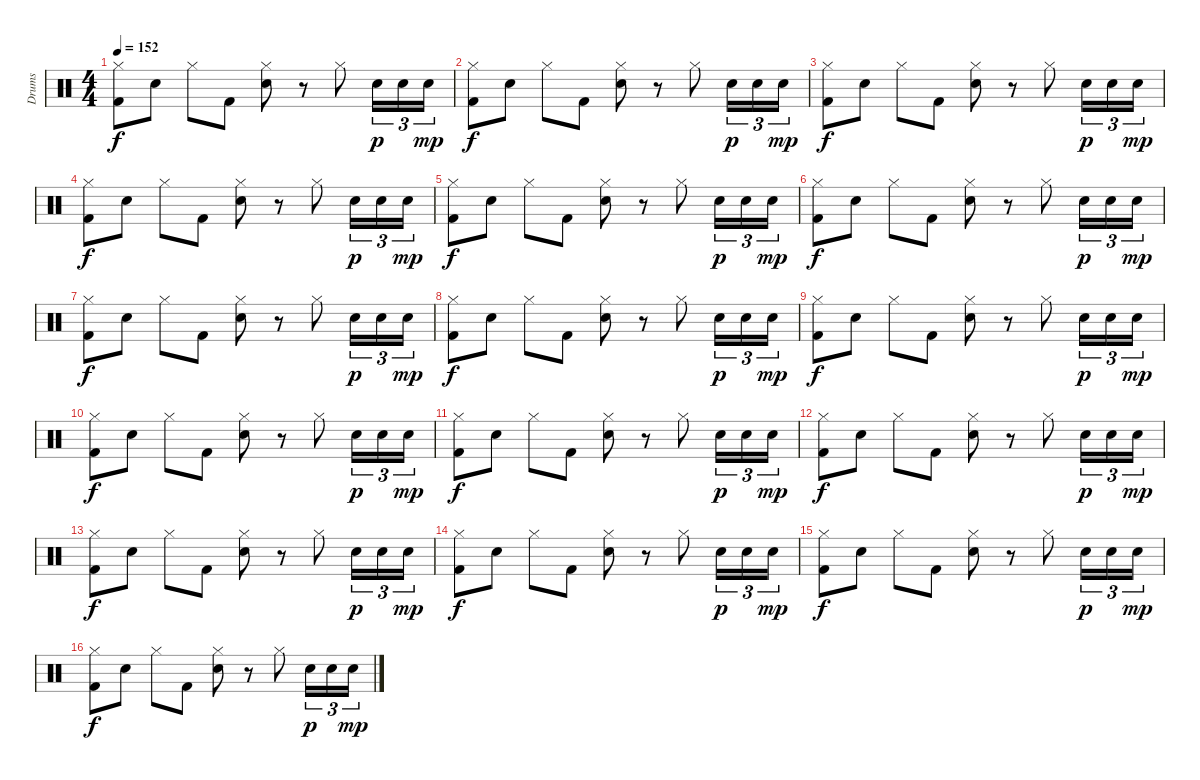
\track ("Drums" "Drums") {instrument percussion}
\staff {score}
\articulation defaults
\ts (4 4)
\tempo 152
\clef neutral
\ks c
("Hi-Hat (closed)" "Kick (hit) 2").8{dy f} "Snare (hit) 2".8 "Hi-Hat (closed)".8 "Kick (hit) 2".8 ("Hi-Hat (closed)" "Snare (hit) 2").8 r.8 "Hi-Hat (closed)".8 "Snare (hit) 2".16{tu (3 2) dy p} "Snare (hit) 2".16{tu (3 2)} "Snare (hit) 2".16{tu (3 2) dy mp} |
("Hi-Hat (closed)" "Kick (hit) 2").8{dy f} "Snare (hit) 2".8 "Hi-Hat (closed)".8 "Kick (hit) 2".8 ("Hi-Hat (closed)" "Snare (hit) 2").8 r.8 "Hi-Hat (closed)".8 "Snare (hit) 2".16{tu (3 2) dy p} "Snare (hit) 2".16{tu (3 2)} "Snare (hit) 2".16{tu (3 2) dy mp} |
("Hi-Hat (closed)" "Kick (hit) 2").8{dy f} "Snare (hit) 2".8 "Hi-Hat (closed)".8 "Kick (hit) 2".8 ("Hi-Hat (closed)" "Snare (hit) 2").8 r.8 "Hi-Hat (closed)".8 "Snare (hit) 2".16{tu (3 2) dy p} "Snare (hit) 2".16{tu (3 2)} "Snare (hit) 2".16{tu (3 2) dy mp} |
("Hi-Hat (closed)" "Kick (hit) 2").8{dy f volume 11} "Snare (hit) 2".8 "Hi-Hat (closed)".8 "Kick (hit) 2".8 ("Hi-Hat (closed)" "Snare (hit) 2").8 r.8 "Hi-Hat (closed)".8 "Snare (hit) 2".16{tu (3 2) dy p} "Snare (hit) 2".16{tu (3 2)} "Snare (hit) 2".16{tu (3 2) dy mp} |
("Hi-Hat (closed)" "Kick (hit) 2").8{dy f} "Snare (hit) 2".8 "Hi-Hat (closed)".8 "Kick (hit) 2".8 ("Hi-Hat (closed)" "Snare (hit) 2").8 r.8 "Hi-Hat (closed)".8 "Snare (hit) 2".16{tu (3 2) dy p} "Snare (hit) 2".16{tu (3 2)} "Snare (hit) 2".16{tu (3 2) dy mp} |
("Hi-Hat (closed)" "Kick (hit) 2").8{dy f} "Snare (hit) 2".8 "Hi-Hat (closed)".8 "Kick (hit) 2".8 ("Hi-Hat (closed)" "Snare (hit) 2").8 r.8 "Hi-Hat (closed)".8 "Snare (hit) 2".16{tu (3 2) dy p} "Snare (hit) 2".16{tu (3 2)} "Snare (hit) 2".16{tu (3 2) dy mp} |
("Hi-Hat (closed)" "Kick (hit) 2").8{dy f} "Snare (hit) 2".8 "Hi-Hat (closed)".8 "Kick (hit) 2".8 ("Hi-Hat (closed)" "Snare (hit) 2").8 r.8 "Hi-Hat (closed)".8 "Snare (hit) 2".16{tu (3 2) dy p} "Snare (hit) 2".16{tu (3 2)} "Snare (hit) 2".16{tu (3 2) dy mp} |
("Hi-Hat (closed)" "Kick (hit) 2").8{dy f volume 11} "Snare (hit) 2".8 "Hi-Hat (closed)".8 "Kick (hit) 2".8 ("Hi-Hat (closed)" "Snare (hit) 2").8 r.8 "Hi-Hat (closed)".8 "Snare (hit) 2".16{tu (3 2) dy p} "Snare (hit) 2".16{tu (3 2)} "Snare (hit) 2".16{tu (3 2) dy mp} |
("Hi-Hat (closed)" "Kick (hit) 2").8{dy f} "Snare (hit) 2".8 "Hi-Hat (closed)".8 "Kick (hit) 2".8 ("Hi-Hat (closed)" "Snare (hit) 2").8 r.8 "Hi-Hat (closed)".8 "Snare (hit) 2".16{tu (3 2) dy p} "Snare (hit) 2".16{tu (3 2)} "Snare (hit) 2".16{tu (3 2) dy mp} |
("Hi-Hat (closed)" "Kick (hit) 2").8{dy f} "Snare (hit) 2".8 "Hi-Hat (closed)".8 "Kick (hit) 2".8 ("Hi-Hat (closed)" "Snare (hit) 2").8 r.8 "Hi-Hat (closed)".8 "Snare (hit) 2".16{tu (3 2) dy p} "Snare (hit) 2".16{tu (3 2)} "Snare (hit) 2".16{tu (3 2) dy mp} |
("Hi-Hat (closed)" "Kick (hit) 2").8{dy f} "Snare (hit) 2".8 "Hi-Hat (closed)".8 "Kick (hit) 2".8 ("Hi-Hat (closed)" "Snare (hit) 2").8 r.8 "Hi-Hat (closed)".8 "Snare (hit) 2".16{tu (3 2) dy p} "Snare (hit) 2".16{tu (3 2)} "Snare (hit) 2".16{tu (3 2) dy mp} |
("Hi-Hat (closed)" "Kick (hit) 2").8{dy f volume 11} "Snare (hit) 2".8 "Hi-Hat (closed)".8 "Kick (hit) 2".8 ("Hi-Hat (closed)" "Snare (hit) 2").8 r.8 "Hi-Hat (closed)".8 "Snare (hit) 2".16{tu (3 2) dy p} "Snare (hit) 2".16{tu (3 2)} "Snare (hit) 2".16{tu (3 2) dy mp} |
("Hi-Hat (closed)" "Kick (hit) 2").8{dy f} "Snare (hit) 2".8 "Hi-Hat (closed)".8 "Kick (hit) 2".8 ("Hi-Hat (closed)" "Snare (hit) 2").8 r.8 "Hi-Hat (closed)".8 "Snare (hit) 2".16{tu (3 2) dy p} "Snare (hit) 2".16{tu (3 2)} "Snare (hit) 2".16{tu (3 2) dy mp} |
("Hi-Hat (closed)" "Kick (hit) 2").8{dy f} "Snare (hit) 2".8 "Hi-Hat (closed)".8 "Kick (hit) 2".8 ("Hi-Hat (closed)" "Snare (hit) 2").8 r.8 "Hi-Hat (closed)".8 "Snare (hit) 2".16{tu (3 2) dy p} "Snare (hit) 2".16{tu (3 2)} "Snare (hit) 2".16{tu (3 2) dy mp} |
("Hi-Hat (closed)" "Kick (hit) 2").8{dy f} "Snare (hit) 2".8 "Hi-Hat (closed)".8 "Kick (hit) 2".8 ("Hi-Hat (closed)" "Snare (hit) 2").8 r.8 "Hi-Hat (closed)".8 "Snare (hit) 2".16{tu (3 2) dy p} "Snare (hit) 2".16{tu (3 2)} "Snare (hit) 2".16{tu (3 2) dy mp} |
("Hi-Hat (closed)" "Kick (hit) 2").8{dy f volume 11} "Snare (hit) 2".8 "Hi-Hat (closed)".8 "Kick (hit) 2".8 ("Hi-Hat (closed)" "Snare (hit) 2").8 r.8 "Hi-Hat (closed)".8 "Snare (hit) 2".16{tu (3 2) dy p} "Snare (hit) 2".16{tu (3 2)} "Snare (hit) 2".16{tu (3 2) dy mp}
